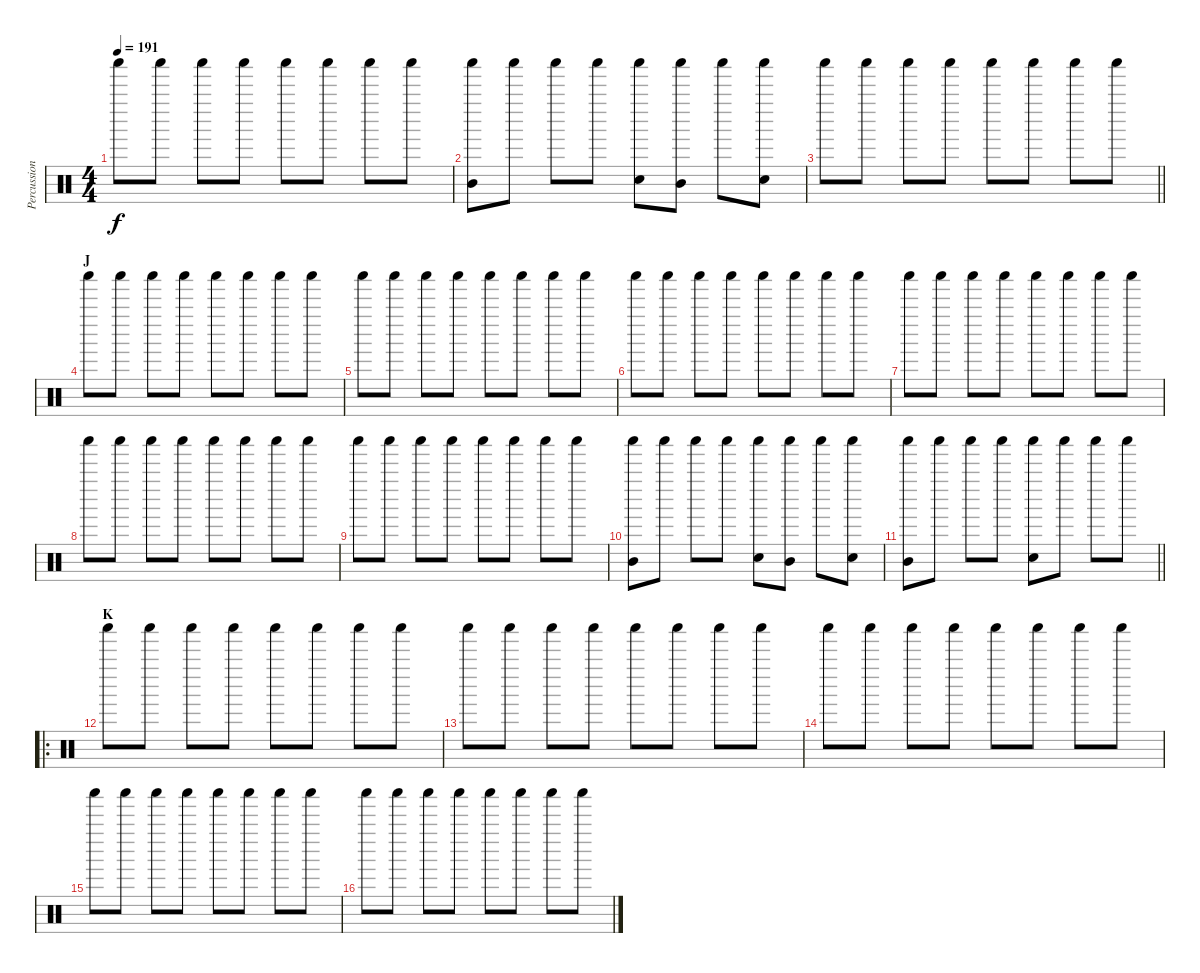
\track ("Percussion" "Percussion") {instrument percussion}
\staff {score}
\articulation defaults
\ts (4 4)
\tempo 191
\clef neutral
\ks c "Shaker (hit)".8{dy f} "Shaker (hit)".8 "Shaker (hit)".8 "Shaker (hit)".8 "Shaker (hit)".8 "Shaker (hit)".8 "Shaker (hit)".8 "Shaker (hit)".8
|
("Mid Tom (hit)" "Shaker (hit)").8 "Shaker (hit)".8 "Shaker (hit)".8 "Shaker (hit)".8 ("Electric Snare (hit)" "Shaker (hit)").8 ("Mid Tom (hit)" "Shaker (hit)").8 "Shaker (hit)".8 ("Electric Snare (hit)" "Shaker (hit)").8 |
\barLineRight lightlight "Shaker (hit)".8 "Shaker (hit)".8 "Shaker (hit)".8 "Shaker (hit)".8 "Shaker (hit)".8 "Shaker (hit)".8 "Shaker (hit)".8 "Shaker (hit)".8
|
\section ("" "J")
"Shaker (hit)".8 "Shaker (hit)".8 "Shaker (hit)".8 "Shaker (hit)".8 "Shaker (hit)".8 "Shaker (hit)".8 "Shaker (hit)".8 "Shaker (hit)".8 |
"Shaker (hit)".8 "Shaker (hit)".8 "Shaker (hit)".8 "Shaker (hit)".8 "Shaker (hit)".8 "Shaker (hit)".8 "Shaker (hit)".8 "Shaker (hit)".8 |
"Shaker (hit)".8 "Shaker (hit)".8 "Shaker (hit)".8 "Shaker (hit)".8 "Shaker (hit)".8 "Shaker (hit)".8 "Shaker (hit)".8 "Shaker (hit)".8 |
"Shaker (hit)".8 "Shaker (hit)".8 "Shaker (hit)".8 "Shaker (hit)".8 "Shaker (hit)".8 "Shaker (hit)".8 "Shaker (hit)".8 "Shaker (hit)".8 |
"Shaker (hit)".8 "Shaker (hit)".8 "Shaker (hit)".8 "Shaker (hit)".8 "Shaker (hit)".8 "Shaker (hit)".8 "Shaker (hit)".8 "Shaker (hit)".8 |
"Shaker (hit)".8 "Shaker (hit)".8 "Shaker (hit)".8 "Shaker (hit)".8 "Shaker (hit)".8 "Shaker (hit)".8 "Shaker (hit)".8 "Shaker (hit)".8 |
("Mid Tom (hit)" "Shaker (hit)").8 "Shaker (hit)".8 "Shaker (hit)".8 "Shaker (hit)".8 ("Electric Snare (hit)" "Shaker (hit)").8 ("Mid Tom (hit)" "Shaker (hit)").8 "Shaker (hit)".8 ("Electric Snare (hit)" "Shaker (hit)").8 |
\barLineRight lightlight
("Mid Tom (hit)" "Shaker (hit)").8 "Shaker (hit)".8 "Shaker (hit)".8 "Shaker (hit)".8 ("Electric Snare (hit)" "Shaker (hit)").8 "Shaker (hit)".8 "Shaker (hit)".8 "Shaker (hit)".8 |
\ro
\section ("" "K")
"Shaker (hit)".8 "Shaker (hit)".8 "Shaker (hit)".8 "Shaker (hit)".8 "Shaker (hit)".8 "Shaker (hit)".8 "Shaker (hit)".8 "Shaker (hit)".8 |
"Shaker (hit)".8 "Shaker (hit)".8 "Shaker (hit)".8 "Shaker (hit)".8 "Shaker (hit)".8 "Shaker (hit)".8 "Shaker (hit)".8 "Shaker (hit)".8 |
"Shaker (hit)".8 "Shaker (hit)".8 "Shaker (hit)".8 "Shaker (hit)".8 "Shaker (hit)".8 "Shaker (hit)".8 "Shaker (hit)".8 "Shaker (hit)".8 |
"Shaker (hit)".8 "Shaker (hit)".8 "Shaker (hit)".8 "Shaker (hit)".8 "Shaker (hit)".8 "Shaker (hit)".8 "Shaker (hit)".8 "Shaker (hit)".8 |
"Shaker (hit)".8 "Shaker (hit)".8 "Shaker (hit)".8 "Shaker (hit)".8 "Shaker (hit)".8 "Shaker (hit)".8 "Shaker (hit)".8 "Shaker (hit)".8
